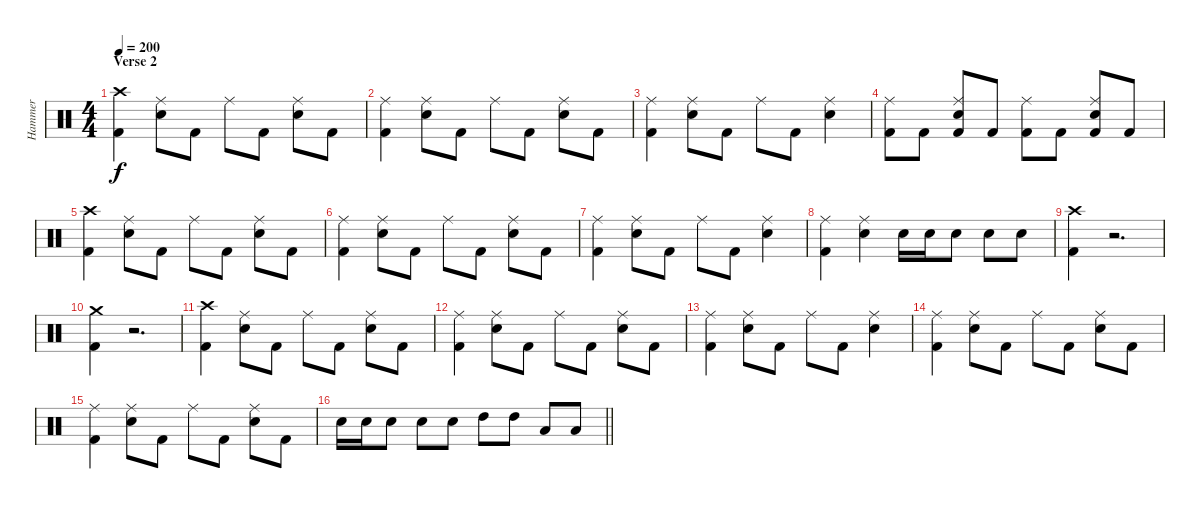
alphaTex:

\track ("Hammer" "Hammer") {instrument percussion}
\staff {score}
\articulation defaults
\ts (4 4)
\section ("" "Verse 2")
\tempo 200
\clef neutral
\ks c
("Kick (hit) 2" "Crash high (hit)").4{dy f} ("Ride (middle)" "Snare (hit) 2").8 "Kick (hit) 2".8 "Ride (middle)".8 "Kick (hit) 2".8 ("Ride (middle)" "Snare (hit) 2").8 "Kick (hit) 2".8 |
("Kick (hit) 2" "Ride (middle)").4 ("Ride (middle)" "Snare (hit) 2").8 "Kick (hit) 2".8 "Ride (middle)".8 "Kick (hit) 2".8 ("Ride (middle)" "Snare (hit) 2").8 "Kick (hit) 2".8 |
("Kick (hit) 2" "Ride (middle)").4 ("Snare (hit) 2" "Ride (middle)").8 "Kick (hit) 2".8 "Ride (middle)".8 "Kick (hit) 2".8 ("Ride (middle)" "Snare (hit) 2").4 |
("Kick (hit) 2" "Ride (middle)").8 "Kick (hit) 2".8 ("Ride (middle)" "Kick (hit) 2" "Snare (hit) 2").8 "Kick (hit) 2".8 ("Kick (hit) 2" "Ride (middle)").8 "Kick (hit) 2".8 ("Kick (hit) 2" "Snare (hit) 2" "Ride (middle)").8 "Kick (hit) 2".8 |
("Kick (hit) 2" "Crash high (hit)").4 ("Ride (middle)" "Snare (hit) 2").8 "Kick (hit) 2".8 "Ride (middle)".8 "Kick (hit) 2".8 ("Ride (middle)" "Snare (hit) 2").8 "Kick (hit) 2".8 |
("Kick (hit) 2" "Ride (middle)").4 ("Ride (middle)" "Snare (hit) 2").8 "Kick (hit) 2".8 "Ride (middle)".8 "Kick (hit) 2".8 ("Ride (middle)" "Snare (hit) 2").8 "Kick (hit) 2".8 |
("Kick (hit) 2" "Ride (middle)").4 ("Snare (hit) 2" "Ride (middle)").8 "Kick (hit) 2".8 "Ride (middle)".8 "Kick (hit) 2".8 ("Ride (middle)" "Snare (hit) 2").4 |
("Kick (hit) 2" "Ride (middle)").4 ("Snare (hit) 2" "Ride (middle)").4 "Snare (hit) 2".16 "Snare (hit) 2".16 "Snare (hit) 2".8 "Snare (hit) 2".8 "Snare (hit) 2".8 |
("Crash high (hit)" "Kick (hit) 2").4 r.2{d} |
("Crash medium (hit)" "Kick (hit) 2").4 r.2{d} |
("Kick (hit) 2" "Crash high (hit)").4 ("Ride (middle)" "Snare (hit) 2").8 "Kick (hit) 2".8 "Ride (middle)".8 "Kick (hit) 2".8 ("Ride (middle)" "Snare (hit) 2").8 "Kick (hit) 2".8 |
("Kick (hit) 2" "Ride (middle)").4 ("Ride (middle)" "Snare (hit) 2").8 "Kick (hit) 2".8 "Ride (middle)".8 "Kick (hit) 2".8 ("Ride (middle)" "Snare (hit) 2").8 "Kick (hit) 2".8 |
("Kick (hit) 2" "Ride (middle)").4 ("Snare (hit) 2" "Ride (middle)").8 "Kick (hit) 2".8 "Ride (middle)".8 "Kick (hit) 2".8 ("Ride (middle)" "Snare (hit) 2").4 |
("Kick (hit) 2" "Ride (middle)").4 ("Ride (middle)" "Snare (hit) 2").8 "Kick (hit) 2".8 "Ride (middle)".8 "Kick (hit) 2".8 ("Ride (middle)" "Snare (hit) 2").8 "Kick (hit) 2".8 |
("Kick (hit) 2" "Ride (middle)").4 ("Ride (middle)" "Snare (hit) 2").8 "Kick (hit) 2".8 "Ride (middle)".8 "Kick (hit) 2".8 ("Ride (middle)" "Snare (hit) 2").8 "Kick (hit) 2".8 |
\barLineRight lightlight "Snare (hit) 2".16 "Snare (hit) 2".16 "Snare (hit) 2".8 "Snare (hit) 2".8 "Snare (hit) 2".8 "High Tom (hit)".8 "High Tom (hit)".8 "Low Tom (hit)".8 "Low Tom (hit)".8
